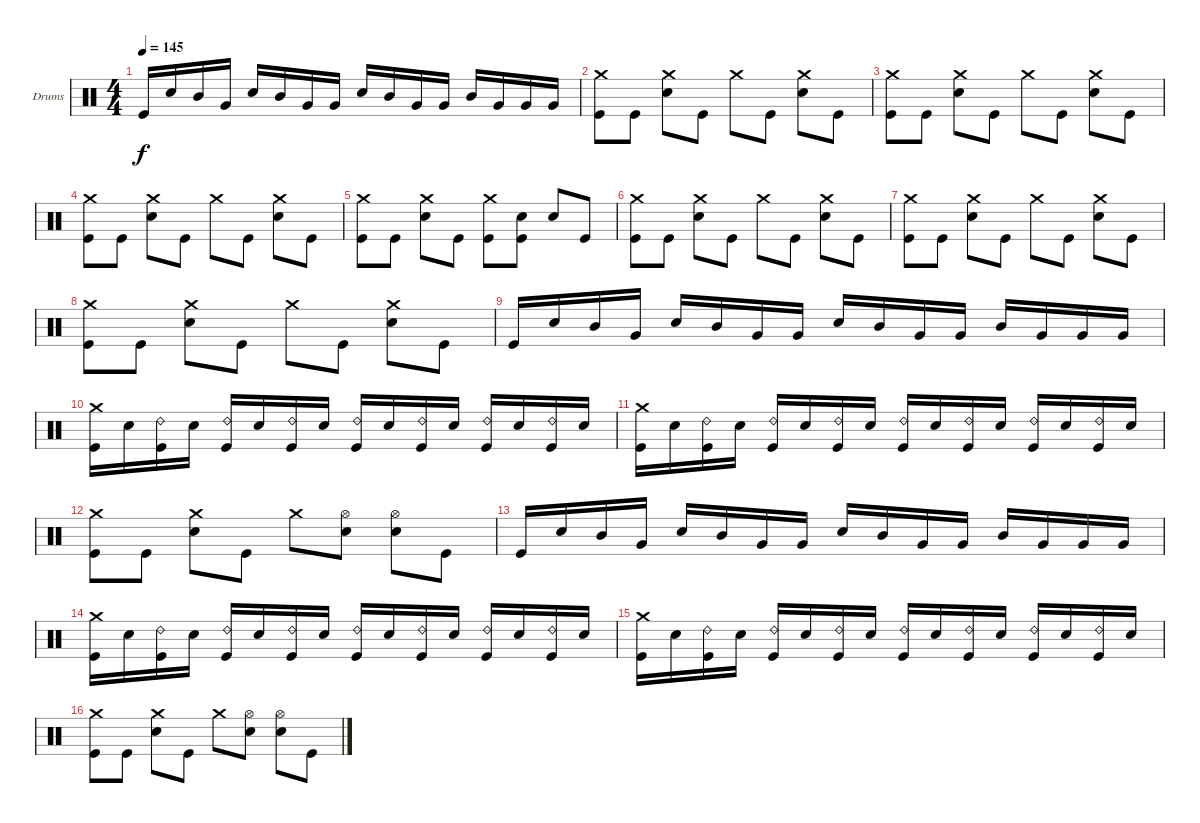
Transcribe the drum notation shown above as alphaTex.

\defaultSystemsLayout 4
\bracketExtendMode groupsimilarinstruments
\firstSystemTrackNameOrientation horizontal
\otherSystemsTrackNameOrientation horizontal
\track ("Drumkit" "Drums") {instrument percussion}
\staff {score}
\articulation defaults
\ts (4 4)
\tempo 145
\clef neutral
\ks c "Kick (hit)".16{dy f} "Snare (hit) 2".16 "Mid Tom (hit)".16 "Very Low Tom (hit)".16 "Snare (hit) 2".16 "Mid Tom (hit)".16 "Very Low Tom (hit)".16 "Very Low Tom (hit)".16 "Snare (hit) 2".16 "Mid Tom (hit)".16 "Very Low Tom (hit)".16 "Very Low Tom (hit)".16 "Mid Tom (hit)".16 "Very Low Tom (hit)".16 "Very Low Tom (hit)".16 "Very Low Tom (hit)".16
|
("Kick (hit)" "Crash medium (hit)").8 "Kick (hit)".8 ("Snare (hit) 2" "Crash medium (hit)").8 "Kick (hit)".8 "Crash medium (hit)".8 "Kick (hit)".8 ("Snare (hit) 2" "Crash medium (hit)").8 "Kick (hit)".8 |
("Kick (hit)" "Crash medium (hit)").8 "Kick (hit)".8 ("Snare (hit) 2" "Crash medium (hit)").8 "Kick (hit)".8 "Crash medium (hit)".8 "Kick (hit)".8 ("Snare (hit) 2" "Crash medium (hit)").8 "Kick (hit)".8 |
("Kick (hit)" "Crash medium (hit)").8 "Kick (hit)".8 ("Snare (hit) 2" "Crash medium (hit)").8 "Kick (hit)".8 "Crash medium (hit)".8 "Kick (hit)".8 ("Snare (hit) 2" "Crash medium (hit)").8 "Kick (hit)".8 |
("Kick (hit)" "Crash medium (hit)").8 "Kick (hit)".8 ("Snare (hit) 2" "Crash medium (hit)").8 "Kick (hit)".8 ("Crash medium (hit)" "Kick (hit)").8 ("Kick (hit)" "Snare (hit) 2").8 "Snare (hit) 2".8 "Kick (hit)".8 |
("Kick (hit)" "Crash medium (hit)").8 "Kick (hit)".8 ("Snare (hit) 2" "Crash medium (hit)").8 "Kick (hit)".8 "Crash medium (hit)".8 "Kick (hit)".8 ("Snare (hit) 2" "Crash medium (hit)").8 "Kick (hit)".8 |
("Kick (hit)" "Crash medium (hit)").8 "Kick (hit)".8 ("Snare (hit) 2" "Crash medium (hit)").8 "Kick (hit)".8 "Crash medium (hit)".8 "Kick (hit)".8 ("Snare (hit) 2" "Crash medium (hit)").8 "Kick (hit)".8 |
("Kick (hit)" "Crash medium (hit)").8 "Kick (hit)".8 ("Snare (hit) 2" "Crash medium (hit)").8 "Kick (hit)".8 "Crash medium (hit)".8 "Kick (hit)".8 ("Snare (hit) 2" "Crash medium (hit)").8 "Kick (hit)".8 |
"Kick (hit)".16 "Snare (hit) 2".16 "Mid Tom (hit)".16 "Very Low Tom (hit)".16 "Snare (hit) 2".16 "Mid Tom (hit)".16 "Very Low Tom (hit)".16 "Very Low Tom (hit)".16 "Snare (hit) 2".16 "Mid Tom (hit)".16 "Very Low Tom (hit)".16 "Very Low Tom (hit)".16 "Mid Tom (hit)".16 "Very Low Tom (hit)".16 "Very Low Tom (hit)".16 "Very Low Tom (hit)".16 |
("Kick (hit)" "Crash medium (hit)").16 "Snare (hit) 2".16 ("Kick (hit)" "Ride (bell) 2").16 "Snare (hit) 2".16 ("Kick (hit)" "Ride (bell) 2").16 "Snare (hit) 2".16 ("Kick (hit)" "Ride (bell) 2").16 "Snare (hit) 2".16 ("Kick (hit)" "Ride (bell) 2").16 "Snare (hit) 2".16 ("Kick (hit)" "Ride (bell) 2").16 "Snare (hit) 2".16 ("Kick (hit)" "Ride (bell) 2").16 "Snare (hit) 2".16 ("Kick (hit)" "Ride (bell) 2").16 "Snare (hit) 2".16 |
("Kick (hit)" "Crash medium (hit)").16 "Snare (hit) 2".16 ("Kick (hit)" "Ride (bell) 2").16 "Snare (hit) 2".16 ("Kick (hit)" "Ride (bell) 2").16 "Snare (hit) 2".16 ("Kick (hit)" "Ride (bell) 2").16 "Snare (hit) 2".16 ("Kick (hit)" "Ride (bell) 2").16 "Snare (hit) 2".16 ("Kick (hit)" "Ride (bell) 2").16 "Snare (hit) 2".16 ("Kick (hit)" "Ride (bell) 2").16 "Snare (hit) 2".16 ("Kick (hit)" "Ride (bell) 2").16 "Snare (hit) 2".16 |
("Kick (hit)" "Crash medium (hit)").8 "Kick (hit)".8 ("Snare (hit) 2" "Crash medium (hit)").8 "Kick (hit)".8 "Crash medium (hit)".8 ("Snare (hit) 2" "Hi-Hat (open)").8 ("Snare (hit) 2" "Hi-Hat (open)").8 "Kick (hit)".8 |
"Kick (hit)".16 "Snare (hit) 2".16 "Mid Tom (hit)".16 "Very Low Tom (hit)".16 "Snare (hit) 2".16 "Mid Tom (hit)".16 "Very Low Tom (hit)".16 "Very Low Tom (hit)".16 "Snare (hit) 2".16 "Mid Tom (hit)".16 "Very Low Tom (hit)".16 "Very Low Tom (hit)".16 "Mid Tom (hit)".16 "Very Low Tom (hit)".16 "Very Low Tom (hit)".16 "Very Low Tom (hit)".16 |
("Kick (hit)" "Crash medium (hit)").16 "Snare (hit) 2".16 ("Kick (hit)" "Ride (bell) 2").16 "Snare (hit) 2".16 ("Kick (hit)" "Ride (bell) 2").16 "Snare (hit) 2".16 ("Kick (hit)" "Ride (bell) 2").16 "Snare (hit) 2".16 ("Kick (hit)" "Ride (bell) 2").16 "Snare (hit) 2".16 ("Kick (hit)" "Ride (bell) 2").16 "Snare (hit) 2".16 ("Kick (hit)" "Ride (bell) 2").16 "Snare (hit) 2".16 ("Kick (hit)" "Ride (bell) 2").16 "Snare (hit) 2".16 |
("Kick (hit)" "Crash medium (hit)").16 "Snare (hit) 2".16 ("Kick (hit)" "Ride (bell) 2").16 "Snare (hit) 2".16 ("Kick (hit)" "Ride (bell) 2").16 "Snare (hit) 2".16 ("Kick (hit)" "Ride (bell) 2").16 "Snare (hit) 2".16 ("Kick (hit)" "Ride (bell) 2").16 "Snare (hit) 2".16 ("Kick (hit)" "Ride (bell) 2").16 "Snare (hit) 2".16 ("Kick (hit)" "Ride (bell) 2").16 "Snare (hit) 2".16 ("Kick (hit)" "Ride (bell) 2").16 "Snare (hit) 2".16 |
("Kick (hit)" "Crash medium (hit)").8 "Kick (hit)".8 ("Snare (hit) 2" "Crash medium (hit)").8 "Kick (hit)".8 "Crash medium (hit)".8 ("Snare (hit) 2" "Hi-Hat (open)").8 ("Snare (hit) 2" "Hi-Hat (open)").8 "Kick (hit)".8
